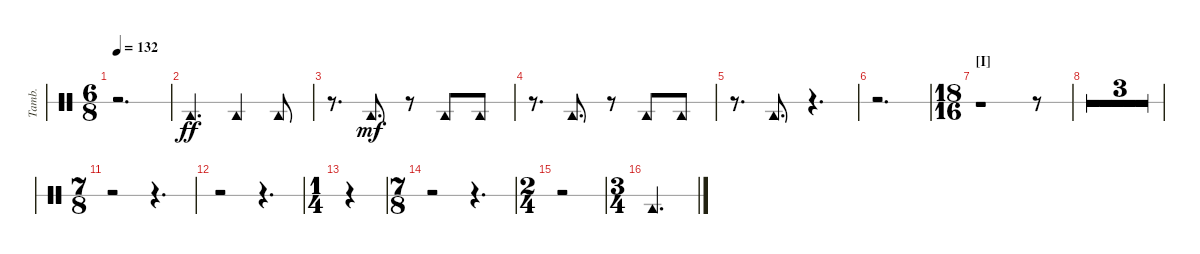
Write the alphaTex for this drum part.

\defaultSystemsLayout 4
\bracketExtendMode groupsimilarinstruments
\otherSystemsTrackNameOrientation horizontal
\track ("Tambourine" "Tamb.") {multiBarRest instrument percussion}
\staff {score 1}
\articulation defaults
\ts (6 8)
\tempo 132
\clef neutral
\ks c
r.2{d dy f} |
"Tambourine (hit)".4{d dy ff} "Tambourine (hit)".4 "Tambourine (hit)".8 |
r.8{d} "Tambourine (hit)".8{d dy mf} r.8 "Tambourine (hit)".8 "Tambourine (hit)".8 |
r.8{d} "Tambourine (hit)".8{d} r.8 "Tambourine (hit)".8 "Tambourine (hit)".8 |
r.8{d} "Tambourine (hit)".8{d} r.4{d} |
r.2{d} |
\ts (18 16)
\beaming (8 3 3 3)
\section ("I" "")
r.1 r.8 |
r.1 r.8 |
r.1 r.8 |
r.1 r.8 |
\ts (7 8)
\beaming (8 2 2 2 1)
r.2 r.4{d} |
r.2 r.4{d} |
\ts (1 4)
\beaming (8 2 2 2 1)
r.4 |
\ts (7 8)
\beaming (8 2 2 2 1)
r.2 r.4{d} |
\ts (2 4)
\beaming (8 2 2 2 1)
r.2 |
\ts (3 4)
\beaming (8 2 2 2 1)
"Tambourine (hit)".2{d}
